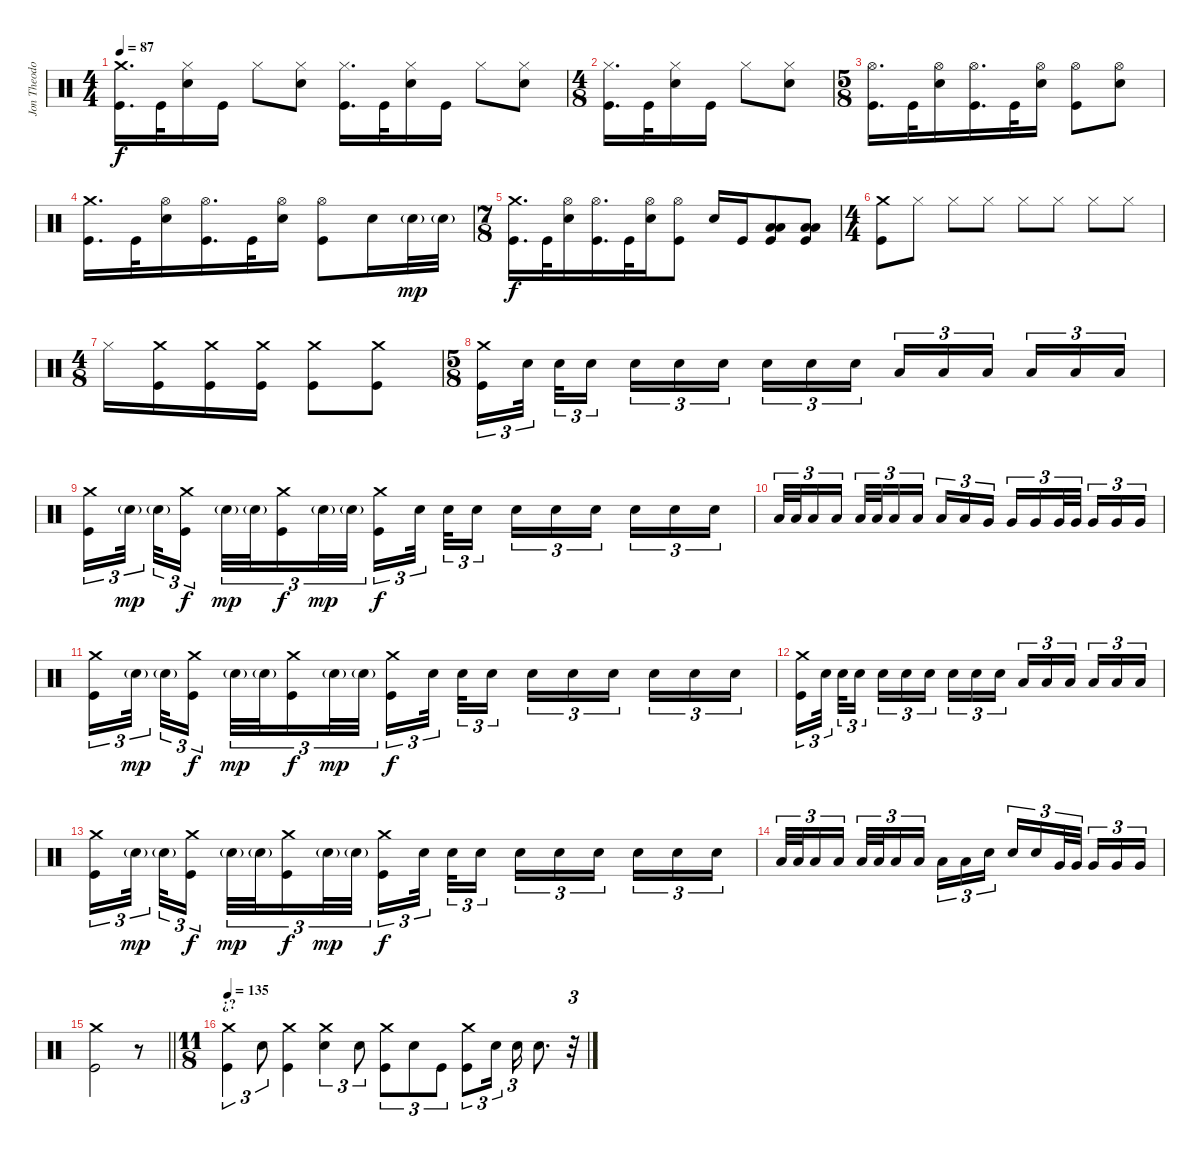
\track ("Jon Theodore" "Jon Theodo") {instrument percussion}
\staff {score}
\articulation defaults
\ts (4 4)
\tempo 87
\clef neutral
\ks c
("Crash medium (hit)" "Kick (hit)").16{d dy f} "Kick (hit)".32 ("Hi-Hat (closed)" "Snare (hit) 2").16 "Kick (hit)".16 "Hi-Hat (closed)".8 ("Hi-Hat (closed)" "Snare (hit) 2").8 ("Hi-Hat (closed)" "Kick (hit)").16{d} "Kick (hit)".32 ("Hi-Hat (closed)" "Snare (hit) 2").16 "Kick (hit)".16 "Hi-Hat (closed)".8 ("Hi-Hat (closed)" "Snare (hit) 2").8 |
\ts (4 8)
("Hi-Hat (closed)" "Kick (hit)").16{d} "Kick (hit)".32 ("Hi-Hat (closed)" "Snare (hit) 2").16 "Kick (hit)".16 "Hi-Hat (closed)".8 ("Hi-Hat (closed)" "Snare (hit) 2").8 |
\ts (5 8)
("Hi-Hat (open)" "Kick (hit)").16{d} "Kick (hit)".32 ("Hi-Hat (open)" "Snare (hit) 2").16 ("Hi-Hat (open)" "Kick (hit)").16{d} "Kick (hit)".32 ("Hi-Hat (open)" "Snare (hit) 2").16 ("Hi-Hat (open)" "Kick (hit)").8 ("Hi-Hat (open)" "Snare (hit) 2").8 |
("Crash medium (hit)" "Kick (hit)").16{d} "Kick (hit)".32 ("Hi-Hat (open)" "Snare (hit) 2").16 ("Hi-Hat (open)" "Kick (hit)").16{d} "Kick (hit)".32 ("Hi-Hat (open)" "Snare (hit) 2").16 ("Hi-Hat (open)" "Kick (hit)").8 "Snare (hit) 2".16 "Snare (hit) 2"{g}.32{dy mp} "Snare (hit) 2"{g}.32 |
\ts (7 8)
("Crash medium (hit)" "Kick (hit)").16{d dy f} "Kick (hit)".32 ("Hi-Hat (open)" "Snare (hit) 2").16 ("Hi-Hat (open)" "Kick (hit)").16{d} "Kick (hit)".32 ("Hi-Hat (open)" "Snare (hit) 2").16 ("Hi-Hat (open)" "Kick (hit)").8 "Snare (hit) 2".16 "Kick (hit)".16 ("Low Tom (hit)" "Low Floor Tom (hit)" "Kick (hit)").8 ("Low Tom (hit)" "Low Floor Tom (hit)" "Kick (hit)").8 |
\ts (4 4)
("Crash medium (hit)" "Kick (hit)").8 "Hi-Hat (closed)".8 "Hi-Hat (closed)".8 "Hi-Hat (closed)".8 "Hi-Hat (closed)".8 "Hi-Hat (closed)".8 "Hi-Hat (closed)".8 "Hi-Hat (closed)".8 |
\ts (4 8)
"Hi-Hat (closed)".16 ("Crash medium (hit)" "Kick (hit)").16 ("Crash medium (hit)" "Kick (hit)").16 ("Crash medium (hit)" "Kick (hit)").16 ("Crash medium (hit)" "Kick (hit)").8 ("Crash medium (hit)" "Kick (hit)").8 |
\ts (5 8)
("Crash medium (hit)" "Kick (hit)").16{tu (3 2)} "Snare (hit) 2".32{tu (3 2) beam splitsecondary} "Snare (hit) 2".32{tu (3 2)} "Snare (hit) 2".16{tu (3 2)} "Snare (hit) 2".16{tu (3 2)} "Snare (hit) 2".16{tu (3 2)} "Snare (hit) 2".16{tu (3 2)} "Snare (hit) 2".16{tu (3 2)} "Snare (hit) 2".16{tu (3 2)} "Snare (hit) 2".16{tu (3 2)} "Low Tom (hit)".16{tu (3 2)} "Low Tom (hit)".16{tu (3 2)} "Low Tom (hit)".16{tu (3 2)} "Low Tom (hit)".16{tu (3 2)} "Low Tom (hit)".16{tu (3 2)} "Low Tom (hit)".16{tu (3 2)} |
("Crash medium (hit)" "Kick (hit)").16{tu (3 2)} "Snare (hit) 2"{g}.32{tu (3 2) dy mp beam splitsecondary} "Snare (hit) 2"{g}.32{tu (3 2)} ("Crash medium (hit)" "Kick (hit)").16{tu (3 2) dy f} "Snare (hit) 2"{g}.32{tu (3 2) dy mp} "Snare (hit) 2"{g}.32{tu (3 2)} ("Crash medium (hit)" "Kick (hit)").16{tu (3 2) dy f} "Snare (hit) 2"{g}.32{tu (3 2) dy mp} "Snare (hit) 2"{g}.32{tu (3 2)} ("Crash medium (hit)" "Kick (hit)").16{tu (3 2) dy f} "Snare (hit) 2".32{tu (3 2) beam splitsecondary} "Snare (hit) 2".32{tu (3 2)} "Snare (hit) 2".16{tu (3 2)} "Snare (hit) 2".16{tu (3 2)} "Snare (hit) 2".16{tu (3 2)} "Snare (hit) 2".16{tu (3 2)} "Snare (hit) 2".16{tu (3 2)} "Snare (hit) 2".16{tu (3 2)} "Snare (hit) 2".16{tu (3 2)} |
"Low Tom (hit)".32{tu (3 2)} "Low Tom (hit)".32{tu (3 2)} "Low Tom (hit)".16{tu (3 2)} "Low Tom (hit)".16{tu (3 2)} "Low Tom (hit)".32{tu (3 2)} "Low Tom (hit)".32{tu (3 2)} "Low Tom (hit)".16{tu (3 2)} "Low Tom (hit)".16{tu (3 2)} "Low Tom (hit)".16{tu (3 2)} "Low Tom (hit)".16{tu (3 2)} "Very Low Tom (hit)".16{tu (3 2)} "Very Low Tom (hit)".16{tu (3 2)} "Very Low Tom (hit)".16{tu (3 2)} "Very Low Tom (hit)".32{tu (3 2)} "Very Low Tom (hit)".32{tu (3 2)} "Very Low Tom (hit)".16{tu (3 2)} "Very Low Tom (hit)".16{tu (3 2)} "Very Low Tom (hit)".16{tu (3 2)} |
("Crash medium (hit)" "Kick (hit)").16{tu (3 2)} "Snare (hit) 2"{g}.32{tu (3 2) dy mp beam splitsecondary} "Snare (hit) 2"{g}.32{tu (3 2)} ("Crash medium (hit)" "Kick (hit)").16{tu (3 2) dy f} "Snare (hit) 2"{g}.32{tu (3 2) dy mp} "Snare (hit) 2"{g}.32{tu (3 2)} ("Crash medium (hit)" "Kick (hit)").16{tu (3 2) dy f} "Snare (hit) 2"{g}.32{tu (3 2) dy mp} "Snare (hit) 2"{g}.32{tu (3 2)} ("Crash medium (hit)" "Kick (hit)").16{tu (3 2) dy f} "Snare (hit) 2".32{tu (3 2) beam splitsecondary} "Snare (hit) 2".32{tu (3 2)} "Snare (hit) 2".16{tu (3 2)} "Snare (hit) 2".16{tu (3 2)} "Snare (hit) 2".16{tu (3 2)} "Snare (hit) 2".16{tu (3 2)} "Snare (hit) 2".16{tu (3 2)} "Snare (hit) 2".16{tu (3 2)} "Snare (hit) 2".16{tu (3 2)} |
("Crash medium (hit)" "Kick (hit)").16{tu (3 2)} "Snare (hit) 2".32{tu (3 2) beam splitsecondary} "Snare (hit) 2".32{tu (3 2)} "Snare (hit) 2".16{tu (3 2)} "Snare (hit) 2".16{tu (3 2)} "Snare (hit) 2".16{tu (3 2)} "Snare (hit) 2".16{tu (3 2)} "Snare (hit) 2".16{tu (3 2)} "Snare (hit) 2".16{tu (3 2)} "Snare (hit) 2".16{tu (3 2)} "Low Tom (hit)".16{tu (3 2)} "Low Tom (hit)".16{tu (3 2)} "Low Tom (hit)".16{tu (3 2)} "Low Tom (hit)".16{tu (3 2)} "Low Tom (hit)".16{tu (3 2)} "Low Tom (hit)".16{tu (3 2)} |
("Crash medium (hit)" "Kick (hit)").16{tu (3 2)} "Snare (hit) 2"{g}.32{tu (3 2) dy mp beam splitsecondary} "Snare (hit) 2"{g}.32{tu (3 2)} ("Crash medium (hit)" "Kick (hit)").16{tu (3 2) dy f} "Snare (hit) 2"{g}.32{tu (3 2) dy mp} "Snare (hit) 2"{g}.32{tu (3 2)} ("Crash medium (hit)" "Kick (hit)").16{tu (3 2) dy f} "Snare (hit) 2"{g}.32{tu (3 2) dy mp} "Snare (hit) 2"{g}.32{tu (3 2)} ("Crash medium (hit)" "Kick (hit)").16{tu (3 2) dy f} "Snare (hit) 2".32{tu (3 2) beam splitsecondary} "Snare (hit) 2".32{tu (3 2)} "Snare (hit) 2".16{tu (3 2)} "Snare (hit) 2".16{tu (3 2)} "Snare (hit) 2".16{tu (3 2)} "Snare (hit) 2".16{tu (3 2)} "Snare (hit) 2".16{tu (3 2)} "Snare (hit) 2".16{tu (3 2)} "Snare (hit) 2".16{tu (3 2)} |
"Low Tom (hit)".32{tu (3 2)} "Low Tom (hit)".32{tu (3 2)} "Low Tom (hit)".16{tu (3 2)} "Low Tom (hit)".16{tu (3 2)} "Low Tom (hit)".32{tu (3 2)} "Low Tom (hit)".32{tu (3 2)} "Low Tom (hit)".16{tu (3 2)} "Low Tom (hit)".16{tu (3 2)} "Low Tom (hit)".16{tu (3 2)} "Low Tom (hit)".16{tu (3 2)} "Snare (hit) 2".16{tu (3 2)} "Snare (hit) 2".16{tu (3 2)} "Snare (hit) 2".16{tu (3 2)} "Very Low Tom (hit)".32{tu (3 2)} "Very Low Tom (hit)".32{tu (3 2)} "Very Low Tom (hit)".16{tu (3 2)} "Very Low Tom (hit)".16{tu (3 2)} "Very Low Tom (hit)".16{tu (3 2)} |
\barLineRight lightlight
("Crash medium (hit)" "Kick (hit)").2 r.8 |
\ts (11 8)
\section ("" "¿?")
\tempo 135
("Crash medium (hit)" "Kick (hit)").4{tu (3 2)} "Snare (hit) 2".8{tu (3 2)} ("Crash medium (hit)" "Kick (hit)").4 ("Crash medium (hit)" "Snare (hit) 2").4{tu (3 2)} "Snare (hit) 2".8{tu (3 2)} ("Crash medium (hit)" "Kick (hit)").8{tu (3 2)} "Snare (hit) 2".8{tu (3 2)} "Kick (hit)".8{tu (3 2)} ("Crash medium (hit)" "Kick (hit)").8{tu (3 2)} "Snare (hit) 2".16{tu (3 2)} "Snare (hit) 2".16{tu (3 2)} "Snare (hit) 2".8{d} r.32{tu (3 2)}
